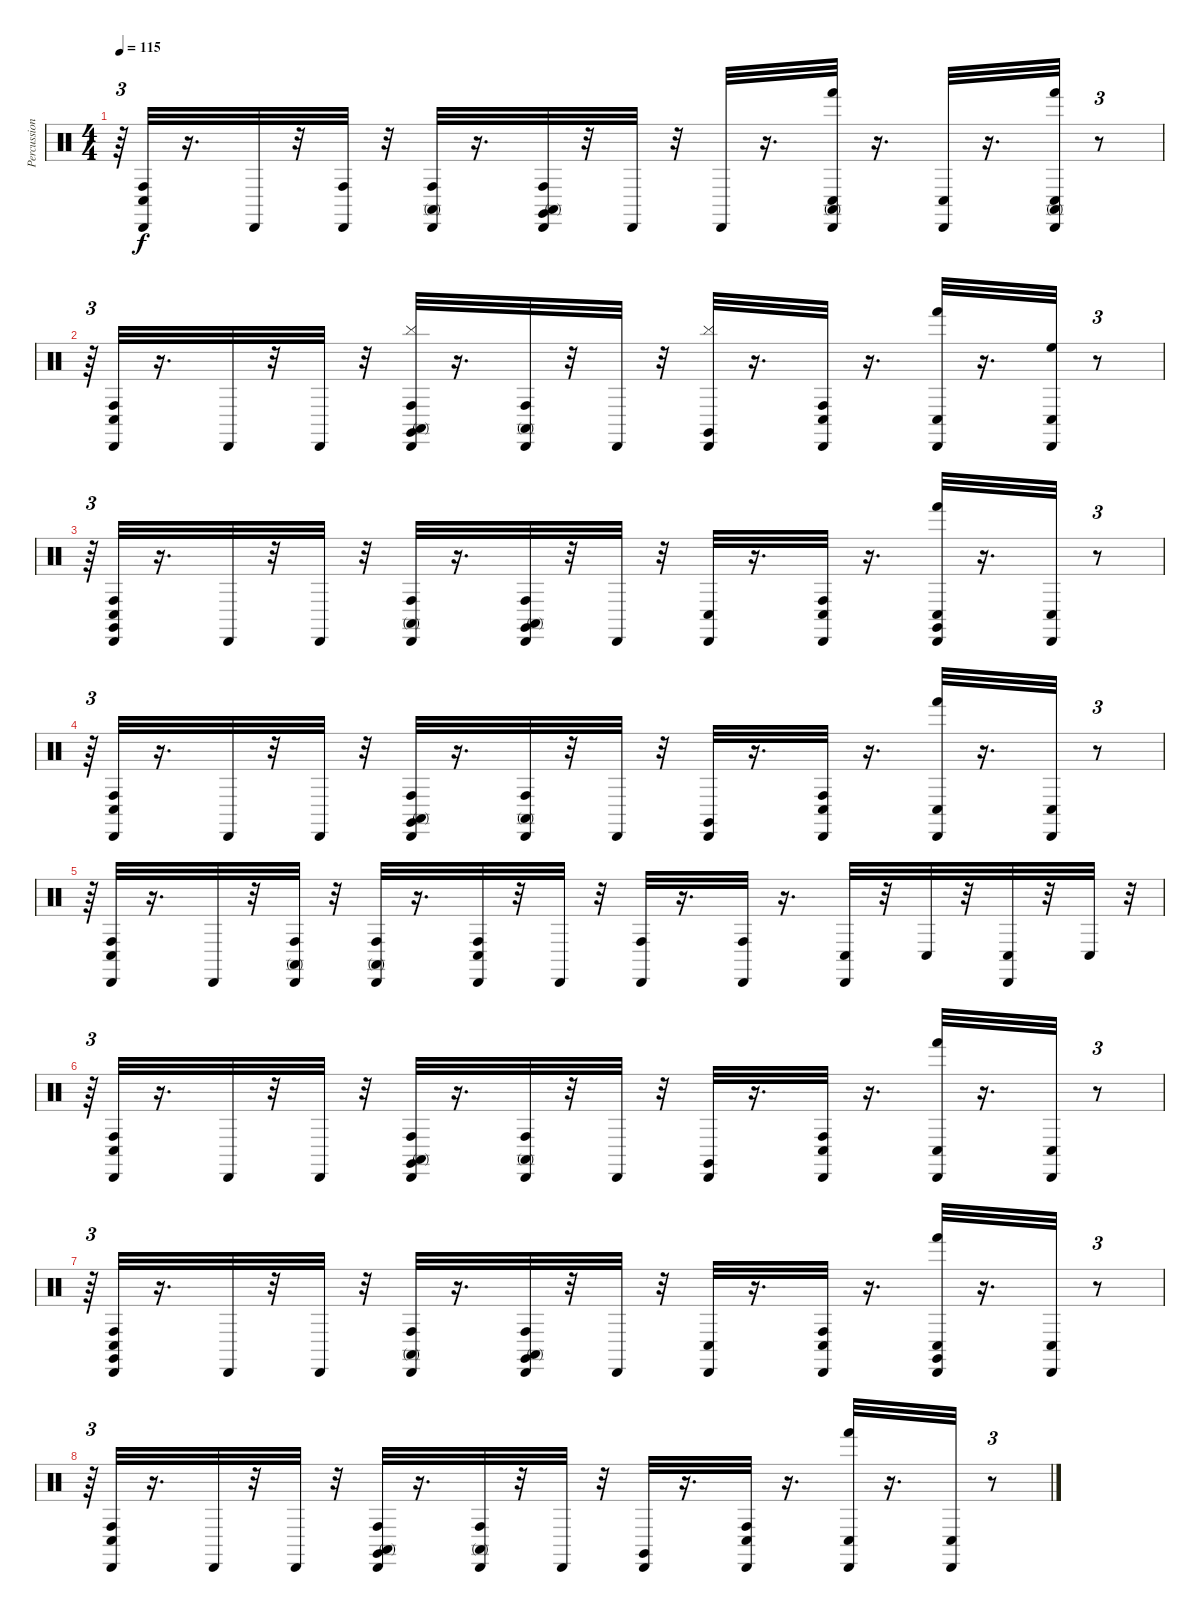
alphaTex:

\track ("Percussion" "Percussion") {instrument percussion}
\staff {score}
\articulation defaults
\ts (4 4)
\tempo 115
\clef neutral
\ks c
r.64{tu (3 2) dy f} ("Conga high (hit)" "Cabasa (hit)" "Conga low (hit)").32 r.16{d} "Cabasa (hit)".32 r.32 ("Cabasa (hit)" "Conga high (hit)").32 r.32 ("Cabasa (hit)" "Conga high (mute)" "Conga high (hit)").32 r.16{d} ("Conga high (mute)" "Cabasa (hit)" "Claves (hit)" "Conga high (hit)").32 r.32 "Cabasa (hit)".32 r.32 "Cabasa (hit)".32 r.16{d} ("Conga high (mute)" "Conga low (hit)" "Cabasa (hit)" "Hand (hit)").32 r.16{d} ("Conga low (hit)" "Cabasa (hit)").32 r.16{d} ("Hand (hit)" "Cabasa (hit)" "Conga high (mute)" "Conga low (hit)").32 r.8{tu (3 2)} |
r.64{tu (3 2)} ("Conga high (hit)" "Conga low (hit)" "Cabasa (hit)").32 r.16{d} "Cabasa (hit)".32 r.32 "Cabasa (hit)".32 r.32 ("Claves (hit)" "Cymbal (hit)" "Cabasa (hit)" "Conga high (hit)" "Conga high (mute)").32 r.16{d} ("Conga high (hit)" "Conga high (mute)" "Cabasa (hit)").32 r.32 "Cabasa (hit)".32 r.32 ("Cabasa (hit)" "Cymbal (hit)" "Claves (hit)").32 r.16{d} ("Cabasa (hit)" "Conga low (hit)" "Conga high (hit)").32 r.16{d} ("Hand (hit)" "Cabasa (hit)" "Conga low (hit)").32 r.16{d} ("Conga low (hit)" "High Floor Tom (hit)" "Cabasa (hit)").32 r.8{tu (3 2)} |
r.64{tu (3 2)} ("Claves (hit)" "Conga low (hit)" "Conga high (hit)" "Cabasa (hit)").32 r.16{d} "Cabasa (hit)".32 r.32 "Cabasa (hit)".32 r.32 ("Conga high (hit)" "Cabasa (hit)" "Conga high (mute)").32 r.16{d} ("Conga high (hit)" "Claves (hit)" "Cabasa (hit)" "Conga high (mute)").32 r.32 "Cabasa (hit)".32 r.32 ("Conga low (hit)" "Cabasa (hit)").32 r.16{d} ("Conga high (hit)" "Cabasa (hit)" "Conga low (hit)").32 r.16{d} ("Claves (hit)" "Cabasa (hit)" "Hand (hit)" "Conga low (hit)").32 r.16{d} ("Cabasa (hit)" "Conga low (hit)").32 r.8{tu (3 2)} |
r.64{tu (3 2)} ("Cabasa (hit)" "Conga high (hit)" "Conga low (hit)").32 r.16{d} "Cabasa (hit)".32 r.32 "Cabasa (hit)".32 r.32 ("Conga high (mute)" "Cabasa (hit)" "Conga high (hit)" "Claves (hit)").32 r.16{d} ("Conga high (hit)" "Conga high (mute)" "Cabasa (hit)").32 r.32 "Cabasa (hit)".32 r.32 ("Claves (hit)" "Cabasa (hit)").32 r.16{d} ("Conga low (hit)" "Conga high (hit)" "Cabasa (hit)").32 r.16{d} ("Cabasa (hit)" "Hand (hit)" "Conga low (hit)").32 r.16{d} ("Cabasa (hit)" "Conga low (hit)").32 r.8{tu (3 2)} |
r.64{tu (3 2)} ("Cabasa (hit)" "Conga high (hit)" "Conga low (hit)").32 r.16{d} "Cabasa (hit)".32 r.32 ("Conga high (hit)" "Conga high (mute)" "Cabasa (hit)").32 r.32 ("Cabasa (hit)" "Conga high (mute)" "Conga high (hit)").32 r.16{d} ("Conga low (hit)" "Conga high (hit)" "Cabasa (hit)").32 r.32 "Cabasa (hit)".32 r.32 ("Cabasa (hit)" "Conga high (hit)").32 r.16{d} ("Cabasa (hit)" "Conga high (hit)").32 r.16{d} ("Conga low (hit)" "Cabasa (hit)").32 r.32 "Conga low (hit)".32 r.32 ("Cabasa (hit)" "Conga low (hit)").32 r.32 "Conga low (hit)".32 r.32{tu (3 2)} |
r.64{tu (3 2)} ("Conga low (hit)" "Conga high (hit)" "Cabasa (hit)").32 r.16{d} "Cabasa (hit)".32 r.32 "Cabasa (hit)".32 r.32 ("Conga high (mute)" "Conga high (hit)" "Cabasa (hit)" "Claves (hit)").32 r.16{d} ("Conga high (hit)" "Conga high (mute)" "Cabasa (hit)").32 r.32 "Cabasa (hit)".32 r.32 ("Cabasa (hit)" "Claves (hit)").32 r.16{d} ("Cabasa (hit)" "Conga high (hit)" "Conga low (hit)").32 r.16{d} ("Cabasa (hit)" "Hand (hit)" "Conga low (hit)").32 r.16{d} ("Cabasa (hit)" "Conga low (hit)").32 r.8{tu (3 2)} |
r.64{tu (3 2)} ("Conga high (hit)" "Cabasa (hit)" "Claves (hit)" "Conga low (hit)").32 r.16{d} "Cabasa (hit)".32 r.32 "Cabasa (hit)".32 r.32 ("Conga high (mute)" "Conga high (hit)" "Cabasa (hit)").32 r.16{d} ("Conga high (mute)" "Cabasa (hit)" "Claves (hit)" "Conga high (hit)").32 r.32 "Cabasa (hit)".32 r.32 ("Conga low (hit)" "Cabasa (hit)").32 r.16{d} ("Conga low (hit)" "Cabasa (hit)" "Conga high (hit)").32 r.16{d} ("Claves (hit)" "Cabasa (hit)" "Hand (hit)" "Conga low (hit)").32 r.16{d} ("Cabasa (hit)" "Conga low (hit)").32 r.8{tu (3 2)} |
r.64{tu (3 2)} ("Conga high (hit)" "Cabasa (hit)" "Conga low (hit)").32 r.16{d} "Cabasa (hit)".32 r.32 "Cabasa (hit)".32 r.32 ("Claves (hit)" "Conga high (mute)" "Cabasa (hit)" "Conga high (hit)").32 r.16{d} ("Cabasa (hit)" "Conga high (mute)" "Conga high (hit)").32 r.32 "Cabasa (hit)".32 r.32 ("Cabasa (hit)" "Claves (hit)").32 r.16{d} ("Conga high (hit)" "Conga low (hit)" "Cabasa (hit)").32 r.16{d} ("Conga low (hit)" "Cabasa (hit)" "Hand (hit)").32 r.16{d} ("Conga low (hit)" "Cabasa (hit)").32 r.8{tu (3 2)}
